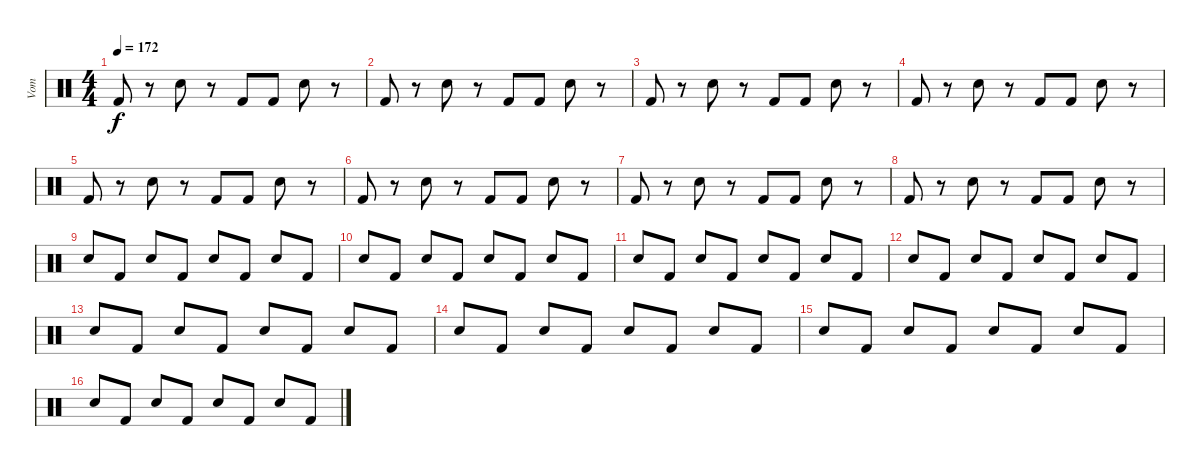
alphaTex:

\track ("Vom" "Vom") {instrument percussion}
\staff {score}
\articulation defaults
\ts (4 4)
\tempo 172
\clef neutral
\ks c "Kick (hit) 2".8{dy f}
r.8 "Snare (hit) 2".8 r.8 "Kick (hit) 2".8 "Kick (hit) 2".8 "Snare (hit) 2".8 r.8 |
"Kick (hit) 2".8 r.8 "Snare (hit) 2".8 r.8 "Kick (hit) 2".8 "Kick (hit) 2".8 "Snare (hit) 2".8 r.8 |
"Kick (hit) 2".8 r.8 "Snare (hit) 2".8 r.8 "Kick (hit) 2".8 "Kick (hit) 2".8 "Snare (hit) 2".8 r.8 |
"Kick (hit) 2".8 r.8 "Snare (hit) 2".8 r.8 "Kick (hit) 2".8 "Kick (hit) 2".8 "Snare (hit) 2".8 r.8 |
"Kick (hit) 2".8 r.8 "Snare (hit) 2".8 r.8 "Kick (hit) 2".8 "Kick (hit) 2".8 "Snare (hit) 2".8 r.8 |
"Kick (hit) 2".8 r.8 "Snare (hit) 2".8 r.8 "Kick (hit) 2".8 "Kick (hit) 2".8 "Snare (hit) 2".8 r.8 |
"Kick (hit) 2".8 r.8 "Snare (hit) 2".8 r.8 "Kick (hit) 2".8 "Kick (hit) 2".8 "Snare (hit) 2".8 r.8 |
"Kick (hit) 2".8 r.8 "Snare (hit) 2".8 r.8 "Kick (hit) 2".8 "Kick (hit) 2".8 "Snare (hit) 2".8 r.8 |
"Snare (hit) 2".8 "Kick (hit) 2".8 "Snare (hit) 2".8 "Kick (hit) 2".8 "Snare (hit) 2".8 "Kick (hit) 2".8 "Snare (hit) 2".8 "Kick (hit) 2".8 |
"Snare (hit) 2".8 "Kick (hit) 2".8 "Snare (hit) 2".8 "Kick (hit) 2".8 "Snare (hit) 2".8 "Kick (hit) 2".8 "Snare (hit) 2".8 "Kick (hit) 2".8 |
"Snare (hit) 2".8 "Kick (hit) 2".8 "Snare (hit) 2".8 "Kick (hit) 2".8 "Snare (hit) 2".8 "Kick (hit) 2".8 "Snare (hit) 2".8 "Kick (hit) 2".8 |
"Snare (hit) 2".8 "Kick (hit) 2".8 "Snare (hit) 2".8 "Kick (hit) 2".8 "Snare (hit) 2".8 "Kick (hit) 2".8 "Snare (hit) 2".8 "Kick (hit) 2".8 |
"Snare (hit) 2".8 "Kick (hit) 2".8 "Snare (hit) 2".8 "Kick (hit) 2".8 "Snare (hit) 2".8 "Kick (hit) 2".8 "Snare (hit) 2".8 "Kick (hit) 2".8 |
"Snare (hit) 2".8 "Kick (hit) 2".8 "Snare (hit) 2".8 "Kick (hit) 2".8 "Snare (hit) 2".8 "Kick (hit) 2".8 "Snare (hit) 2".8 "Kick (hit) 2".8 |
"Snare (hit) 2".8 "Kick (hit) 2".8 "Snare (hit) 2".8 "Kick (hit) 2".8 "Snare (hit) 2".8 "Kick (hit) 2".8 "Snare (hit) 2".8 "Kick (hit) 2".8 |
"Snare (hit) 2".8 "Kick (hit) 2".8 "Snare (hit) 2".8 "Kick (hit) 2".8 "Snare (hit) 2".8 "Kick (hit) 2".8 "Snare (hit) 2".8 "Kick (hit) 2".8
